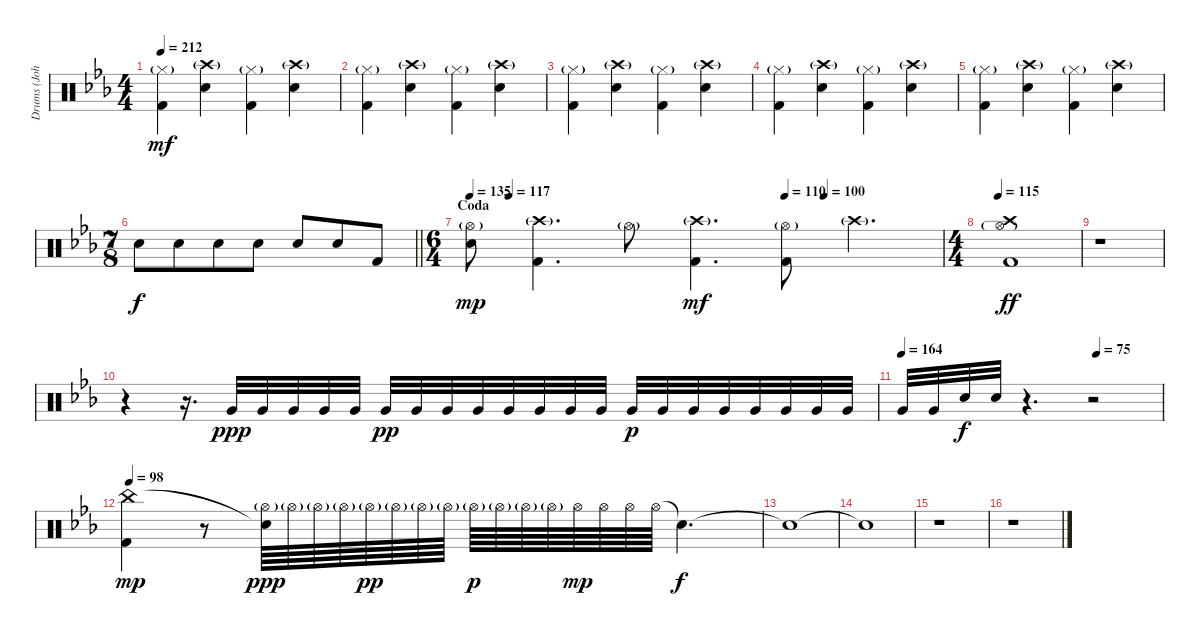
\track ("Drums (John O'Reilly)" "Drums (Joh") {instrument percussion}
\staff {score}
\articulation defaults
\ts (4 4)
\tempo 212
\clef neutral
\ks cminor
("Hi-Hat (closed)"{g} "Kick (hit) 2").4{dy mf} ("Crash high (hit)"{g} "Electric Snare (hit)").4 ("Hi-Hat (closed)"{g} "Kick (hit) 2").4 ("Crash high (hit)"{g} "Electric Snare (hit)").4 |
("Hi-Hat (closed)"{g} "Kick (hit) 2").4 ("Crash high (hit)"{g} "Electric Snare (hit)").4 ("Hi-Hat (closed)"{g} "Kick (hit) 2").4 ("Crash high (hit)"{g} "Electric Snare (hit)").4 |
("Hi-Hat (closed)"{g} "Kick (hit) 2").4 ("Crash high (hit)"{g} "Electric Snare (hit)").4 ("Hi-Hat (closed)"{g} "Kick (hit) 2").4 ("Crash high (hit)"{g} "Electric Snare (hit)").4 |
("Hi-Hat (closed)"{g} "Kick (hit) 2").4 ("Crash high (hit)"{g} "Electric Snare (hit)").4 ("Hi-Hat (closed)"{g} "Kick (hit) 2").4 ("Crash high (hit)"{g} "Electric Snare (hit)").4 |
("Hi-Hat (closed)"{g} "Kick (hit) 2").4 ("Crash high (hit)"{g} "Electric Snare (hit)").4 ("Hi-Hat (closed)"{g} "Kick (hit) 2").4 ("Crash high (hit)"{g} "Electric Snare (hit)").4 |
\ts (7 8)
\barLineRight lightlight "Electric Snare (hit)".8{dy f} "Electric Snare (hit)".8 "Electric Snare (hit)".8 "Electric Snare (hit)".8 "Electric Snare (hit)".8 "Electric Snare (hit)".8 "Kick (hit) 2".8
|
\ts (6 4)
\section ("" "Coda")
\tempo 135
\tempo (117 0.08333333333333333)
\tempo (110 0.6666666666666666)
\tempo (100 0.75)
("Hi-Hat (open)"{g} "Electric Snare (hit)").8{dy mp} ("Crash high (hit)"{g} "Kick (hit) 2").4{d} "Hi-Hat (open)"{g}.8 ("Crash high (hit)"{g} "Kick (hit) 2").4{d dy mf} ("Hi-Hat (open)"{g} "Kick (hit) 2").8 "Crash high (hit)"{g}.4{d} |
\ts (4 4)
\tempo 115
("Crash high (hit)" "Hi-Hat (open)"{g} "Kick (hit) 2").1{dy ff} |
r.1 |
r.4 r.16{d} "Very Low Tom (hit)".32{dy ppp} "Very Low Tom (hit)".32 "Very Low Tom (hit)".32 "Very Low Tom (hit)".32 "Very Low Tom (hit)".32 "Very Low Tom (hit)".32{dy pp} "Very Low Tom (hit)".32 "Very Low Tom (hit)".32 "Very Low Tom (hit)".32 "Very Low Tom (hit)".32 "Very Low Tom (hit)".32 "Very Low Tom (hit)".32 "Very Low Tom (hit)".32 "Very Low Tom (hit)".32{dy p} "Very Low Tom (hit)".32 "Very Low Tom (hit)".32 "Very Low Tom (hit)".32 "Very Low Tom (hit)".32 "Very Low Tom (hit)".32 "Very Low Tom (hit)".32 "Very Low Tom (hit)".32 |
\tempo 164
\tempo (75 0.75)
"Very Low Tom (hit)".32 "Very Low Tom (hit)".32 "Electric Snare (hit)".32{dy f} "Electric Snare (hit)".32 r.4{d} r.2 |
\tempo 98
("China (hit)" "Kick (hit) 2").4{dy mp volume 16} r.8 ("Snare (hit)"{t} "Hi-Hat (open)"{g}).64{dy ppp volume 10} "Hi-Hat (open)"{g}.64 "Hi-Hat (open)"{g}.64 "Hi-Hat (open)"{g}.64 "Hi-Hat (open)"{g}.64{dy pp} "Hi-Hat (open)"{g}.64 "Hi-Hat (open)"{g}.64 "Hi-Hat (open)"{g}.64 "Hi-Hat (open)"{g}.64{dy p} "Hi-Hat (open)"{g}.64 "Hi-Hat (open)"{g}.64 "Hi-Hat (open)"{g}.64 "Hi-Hat (open)".64{dy mp} "Hi-Hat (open)".64 "Hi-Hat (open)".64 "Hi-Hat (open)".64 "Snare (hit)"{t}.4{d dy f} |
"Snare (hit)"{t}.1 |
"Snare (hit)"{t}.1 |
r.1 |
r.1
